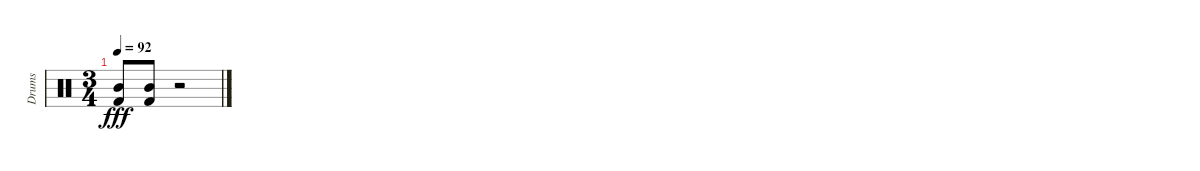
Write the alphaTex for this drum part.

\track ("Drums" "Drums") {instrument percussion}
\staff {score}
\articulation defaults
\ts (3 4)
\tempo 92
\clef neutral
\ks c
("Kick (hit) 2" "Mid Tom (hit)").8{dy fff} ("Kick (hit) 2" "Mid Tom (hit)").8 r.2
